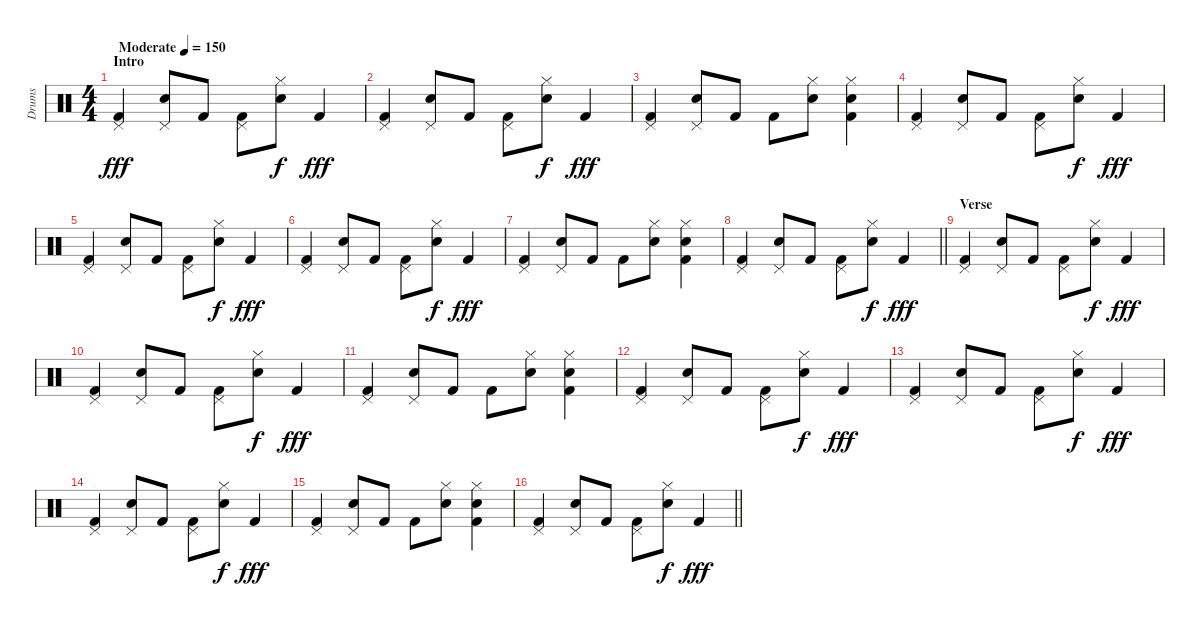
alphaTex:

\track ("Drums" "Drums") {instrument percussion}
\staff {score}
\articulation defaults
\ts (4 4)
\section ("" "Intro")
\tempo (150 "Moderate")
\clef neutral
\ks c
("Pedal Hi-Hat (hit)" "Kick (hit) 2").4{dy fff} ("Pedal Hi-Hat (hit)" "Electric Snare (hit)").8 "Kick (hit) 2".8 ("Pedal Hi-Hat (hit)" "Kick (hit) 2").8 ("Hi-Hat (closed)" "Electric Snare (hit)").8{dy f} "Kick (hit) 2".4{dy fff} |
("Pedal Hi-Hat (hit)" "Kick (hit) 2").4 ("Pedal Hi-Hat (hit)" "Electric Snare (hit)").8 "Kick (hit) 2".8 ("Pedal Hi-Hat (hit)" "Kick (hit) 2").8 ("Hi-Hat (closed)" "Electric Snare (hit)").8{dy f} "Kick (hit) 2".4{dy fff} |
("Pedal Hi-Hat (hit)" "Kick (hit) 2").4 ("Pedal Hi-Hat (hit)" "Electric Snare (hit)").8 "Kick (hit) 2".8 "Kick (hit) 2".8 ("Hi-Hat (closed)" "Electric Snare (hit)").8 ("Hi-Hat (closed)" "Electric Snare (hit)" "Kick (hit) 2").4 |
("Pedal Hi-Hat (hit)" "Kick (hit) 2").4 ("Pedal Hi-Hat (hit)" "Electric Snare (hit)").8 "Kick (hit) 2".8 ("Pedal Hi-Hat (hit)" "Kick (hit) 2").8 ("Hi-Hat (closed)" "Electric Snare (hit)").8{dy f} "Kick (hit) 2".4{dy fff} |
("Pedal Hi-Hat (hit)" "Kick (hit) 2").4 ("Pedal Hi-Hat (hit)" "Electric Snare (hit)").8 "Kick (hit) 2".8 ("Pedal Hi-Hat (hit)" "Kick (hit) 2").8 ("Hi-Hat (closed)" "Electric Snare (hit)").8{dy f} "Kick (hit) 2".4{dy fff} |
("Pedal Hi-Hat (hit)" "Kick (hit) 2").4 ("Pedal Hi-Hat (hit)" "Electric Snare (hit)").8 "Kick (hit) 2".8 ("Pedal Hi-Hat (hit)" "Kick (hit) 2").8 ("Hi-Hat (closed)" "Electric Snare (hit)").8{dy f} "Kick (hit) 2".4{dy fff} |
("Pedal Hi-Hat (hit)" "Kick (hit) 2").4 ("Pedal Hi-Hat (hit)" "Electric Snare (hit)").8 "Kick (hit) 2".8 "Kick (hit) 2".8 ("Hi-Hat (closed)" "Electric Snare (hit)").8 ("Hi-Hat (closed)" "Electric Snare (hit)" "Kick (hit) 2").4 |
\barLineRight lightlight
("Pedal Hi-Hat (hit)" "Kick (hit) 2").4 ("Pedal Hi-Hat (hit)" "Electric Snare (hit)").8 "Kick (hit) 2".8 ("Pedal Hi-Hat (hit)" "Kick (hit) 2").8 ("Hi-Hat (closed)" "Electric Snare (hit)").8{dy f} "Kick (hit) 2".4{dy fff} |
\section ("" "Verse")
("Pedal Hi-Hat (hit)" "Kick (hit) 2").4 ("Pedal Hi-Hat (hit)" "Electric Snare (hit)").8 "Kick (hit) 2".8 ("Pedal Hi-Hat (hit)" "Kick (hit) 2").8 ("Hi-Hat (closed)" "Electric Snare (hit)").8{dy f} "Kick (hit) 2".4{dy fff} |
("Pedal Hi-Hat (hit)" "Kick (hit) 2").4 ("Pedal Hi-Hat (hit)" "Electric Snare (hit)").8 "Kick (hit) 2".8 ("Pedal Hi-Hat (hit)" "Kick (hit) 2").8 ("Hi-Hat (closed)" "Electric Snare (hit)").8{dy f} "Kick (hit) 2".4{dy fff} |
("Pedal Hi-Hat (hit)" "Kick (hit) 2").4 ("Pedal Hi-Hat (hit)" "Electric Snare (hit)").8 "Kick (hit) 2".8 "Kick (hit) 2".8 ("Hi-Hat (closed)" "Electric Snare (hit)").8 ("Hi-Hat (closed)" "Electric Snare (hit)" "Kick (hit) 2").4 |
("Pedal Hi-Hat (hit)" "Kick (hit) 2").4 ("Pedal Hi-Hat (hit)" "Electric Snare (hit)").8 "Kick (hit) 2".8 ("Pedal Hi-Hat (hit)" "Kick (hit) 2").8 ("Hi-Hat (closed)" "Electric Snare (hit)").8{dy f} "Kick (hit) 2".4{dy fff} |
("Pedal Hi-Hat (hit)" "Kick (hit) 2").4 ("Pedal Hi-Hat (hit)" "Electric Snare (hit)").8 "Kick (hit) 2".8 ("Pedal Hi-Hat (hit)" "Kick (hit) 2").8 ("Hi-Hat (closed)" "Electric Snare (hit)").8{dy f} "Kick (hit) 2".4{dy fff} |
("Pedal Hi-Hat (hit)" "Kick (hit) 2").4 ("Pedal Hi-Hat (hit)" "Electric Snare (hit)").8 "Kick (hit) 2".8 ("Pedal Hi-Hat (hit)" "Kick (hit) 2").8 ("Hi-Hat (closed)" "Electric Snare (hit)").8{dy f} "Kick (hit) 2".4{dy fff} |
("Pedal Hi-Hat (hit)" "Kick (hit) 2").4 ("Pedal Hi-Hat (hit)" "Electric Snare (hit)").8 "Kick (hit) 2".8 "Kick (hit) 2".8 ("Hi-Hat (closed)" "Electric Snare (hit)").8 ("Hi-Hat (closed)" "Electric Snare (hit)" "Kick (hit) 2").4 |
\barLineRight lightlight
("Pedal Hi-Hat (hit)" "Kick (hit) 2").4 ("Pedal Hi-Hat (hit)" "Electric Snare (hit)").8 "Kick (hit) 2".8 ("Pedal Hi-Hat (hit)" "Kick (hit) 2").8 ("Hi-Hat (closed)" "Electric Snare (hit)").8{dy f} "Kick (hit) 2".4{dy fff}
